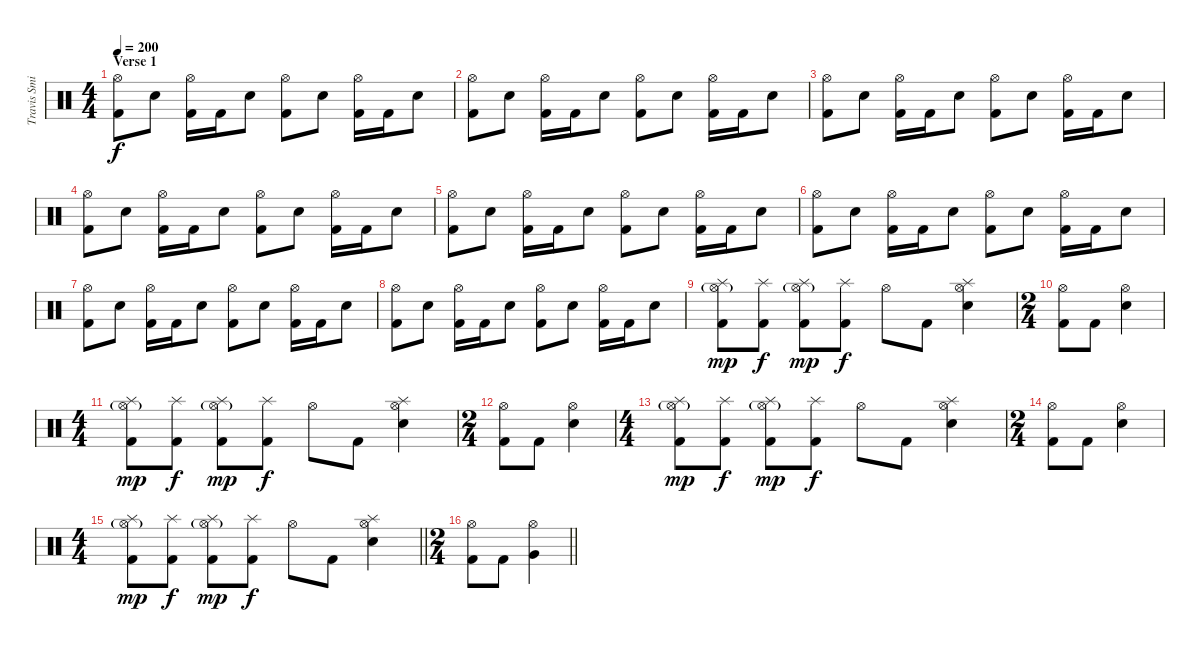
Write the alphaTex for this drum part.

\track ("Travis Smith" "Travis Smi") {instrument percussion}
\staff {score}
\articulation defaults
\ts (4 4)
\section ("" "Verse 1")
\tempo 200
\clef neutral
\ks c
("Hi-Hat (open)" "Kick (hit) 2").8{dy f} "Electric Snare (hit)".8 ("Hi-Hat (open)" "Kick (hit) 2").16 "Kick (hit) 2".16 "Electric Snare (hit)".8 ("Hi-Hat (open)" "Kick (hit) 2").8 "Electric Snare (hit)".8 ("Hi-Hat (open)" "Kick (hit) 2").16 "Kick (hit) 2".16 "Electric Snare (hit)".8 |
("Hi-Hat (open)" "Kick (hit) 2").8 "Electric Snare (hit)".8 ("Hi-Hat (open)" "Kick (hit) 2").16 "Kick (hit) 2".16 "Electric Snare (hit)".8 ("Hi-Hat (open)" "Kick (hit) 2").8 "Electric Snare (hit)".8 ("Hi-Hat (open)" "Kick (hit) 2").16 "Kick (hit) 2".16 "Electric Snare (hit)".8 |
("Hi-Hat (open)" "Kick (hit) 2").8 "Electric Snare (hit)".8 ("Hi-Hat (open)" "Kick (hit) 2").16 "Kick (hit) 2".16 "Electric Snare (hit)".8 ("Hi-Hat (open)" "Kick (hit) 2").8 "Electric Snare (hit)".8 ("Hi-Hat (open)" "Kick (hit) 2").16 "Kick (hit) 2".16 "Electric Snare (hit)".8 |
("Hi-Hat (open)" "Kick (hit) 2").8 "Electric Snare (hit)".8 ("Hi-Hat (open)" "Kick (hit) 2").16 "Kick (hit) 2".16 "Electric Snare (hit)".8 ("Hi-Hat (open)" "Kick (hit) 2").8 "Electric Snare (hit)".8 ("Hi-Hat (open)" "Kick (hit) 2").16 "Kick (hit) 2".16 "Electric Snare (hit)".8 |
("Hi-Hat (open)" "Kick (hit) 2").8 "Electric Snare (hit)".8 ("Hi-Hat (open)" "Kick (hit) 2").16 "Kick (hit) 2".16 "Electric Snare (hit)".8 ("Hi-Hat (open)" "Kick (hit) 2").8 "Electric Snare (hit)".8 ("Hi-Hat (open)" "Kick (hit) 2").16 "Kick (hit) 2".16 "Electric Snare (hit)".8 |
("Hi-Hat (open)" "Kick (hit) 2").8 "Electric Snare (hit)".8 ("Hi-Hat (open)" "Kick (hit) 2").16 "Kick (hit) 2".16 "Electric Snare (hit)".8 ("Hi-Hat (open)" "Kick (hit) 2").8 "Electric Snare (hit)".8 ("Hi-Hat (open)" "Kick (hit) 2").16 "Kick (hit) 2".16 "Electric Snare (hit)".8 |
("Hi-Hat (open)" "Kick (hit) 2").8 "Electric Snare (hit)".8 ("Hi-Hat (open)" "Kick (hit) 2").16 "Kick (hit) 2".16 "Electric Snare (hit)".8 ("Hi-Hat (open)" "Kick (hit) 2").8 "Electric Snare (hit)".8 ("Hi-Hat (open)" "Kick (hit) 2").16 "Kick (hit) 2".16 "Electric Snare (hit)".8 |
("Hi-Hat (open)" "Kick (hit) 2").8 "Electric Snare (hit)".8 ("Hi-Hat (open)" "Kick (hit) 2").16 "Kick (hit) 2".16 "Electric Snare (hit)".8 ("Hi-Hat (open)" "Kick (hit) 2").8 "Electric Snare (hit)".8 ("Hi-Hat (open)" "Kick (hit) 2").16 "Kick (hit) 2".16 "Electric Snare (hit)".8 |
("Splash (hit)" "Hi-Hat (open)"{g} "Kick (hit) 2").8{dy mp} ("Splash (hit)" "Kick (hit) 2").8{dy f} ("Splash (hit)" "Hi-Hat (open)"{g} "Kick (hit) 2").8{dy mp} ("Splash (hit)" "Kick (hit) 2").8{dy f} "Hi-Hat (open)".8 "Kick (hit) 2".8 ("Splash (hit)" "Hi-Hat (open)" "Electric Snare (hit)").4 |
\ts (2 4)
("Hi-Hat (open)" "Kick (hit) 2").8 "Kick (hit) 2".8 ("Hi-Hat (open)" "Electric Snare (hit)").4 |
\ts (4 4)
("Splash (hit)" "Hi-Hat (open)"{g} "Kick (hit) 2").8{dy mp} ("Splash (hit)" "Kick (hit) 2").8{dy f} ("Splash (hit)" "Hi-Hat (open)"{g} "Kick (hit) 2").8{dy mp} ("Splash (hit)" "Kick (hit) 2").8{dy f} "Hi-Hat (open)".8 "Kick (hit) 2".8 ("Splash (hit)" "Hi-Hat (open)" "Electric Snare (hit)").4 |
\ts (2 4)
("Hi-Hat (open)" "Kick (hit) 2").8 "Kick (hit) 2".8 ("Hi-Hat (open)" "Electric Snare (hit)").4 |
\ts (4 4)
("Splash (hit)" "Hi-Hat (open)"{g} "Kick (hit) 2").8{dy mp} ("Splash (hit)" "Kick (hit) 2").8{dy f} ("Splash (hit)" "Hi-Hat (open)"{g} "Kick (hit) 2").8{dy mp} ("Splash (hit)" "Kick (hit) 2").8{dy f} "Hi-Hat (open)".8 "Kick (hit) 2".8 ("Splash (hit)" "Hi-Hat (open)" "Electric Snare (hit)").4 |
\ts (2 4)
("Hi-Hat (open)" "Kick (hit) 2").8 "Kick (hit) 2".8 ("Hi-Hat (open)" "Electric Snare (hit)").4 |
\ts (4 4)
\barLineRight lightlight
("Splash (hit)" "Hi-Hat (open)"{g} "Kick (hit) 2").8{dy mp} ("Splash (hit)" "Kick (hit) 2").8{dy f} ("Splash (hit)" "Hi-Hat (open)"{g} "Kick (hit) 2").8{dy mp} ("Splash (hit)" "Kick (hit) 2").8{dy f} "Hi-Hat (open)".8 "Kick (hit) 2".8 ("Splash (hit)" "Hi-Hat (open)" "Electric Snare (hit)").4 |
\ts (2 4)
\barLineRight lightlight
("Hi-Hat (open)" "Kick (hit) 2").8 "Kick (hit) 2".8 ("Hi-Hat (open)" "Very Low Tom (hit)").4
